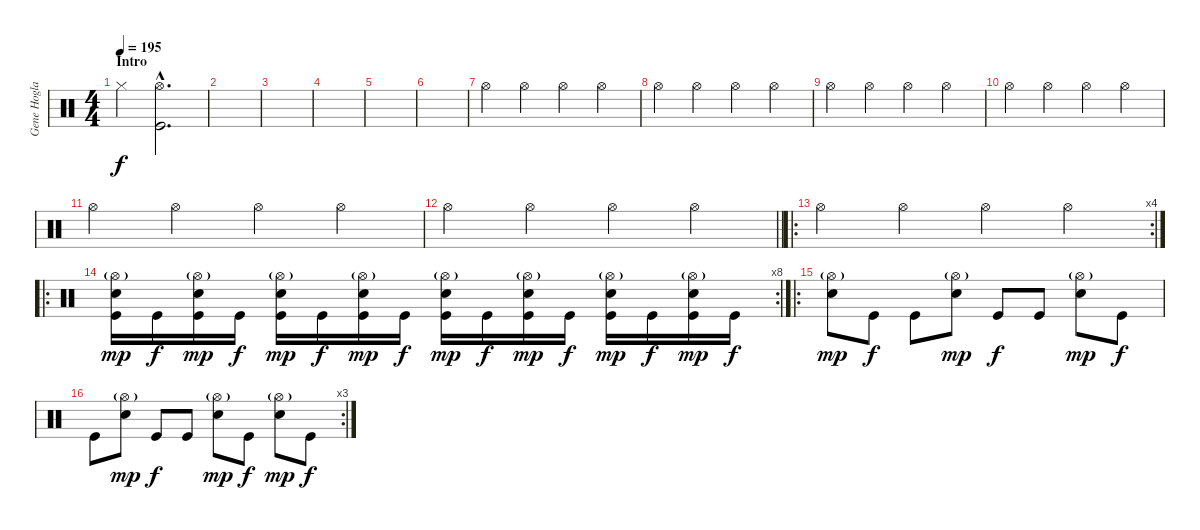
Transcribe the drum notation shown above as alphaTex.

\track ("Gene Hoglan" "Gene Hogla") {instrument percussion}
\staff {score}
\articulation defaults
\ts (4 4)
\section ("" "Intro")
\tempo 195
\clef neutral
\ks c "Hi-Hat (closed)".4{dy f}
("Hi-Hat (open)"{hac} "Kick (hit)"{hac}).2{d} |
|
|
|
|
|
"Hi-Hat (open)".4 "Hi-Hat (open)".4 "Hi-Hat (open)".4 "Hi-Hat (open)".4 |
"Hi-Hat (open)".4 "Hi-Hat (open)".4 "Hi-Hat (open)".4 "Hi-Hat (open)".4 |
"Hi-Hat (open)".4 "Hi-Hat (open)".4 "Hi-Hat (open)".4 "Hi-Hat (open)".4 |
"Hi-Hat (open)".4 "Hi-Hat (open)".4 "Hi-Hat (open)".4 "Hi-Hat (open)".4 |
"Hi-Hat (open)".4 "Hi-Hat (open)".4 "Hi-Hat (open)".4 "Hi-Hat (open)".4 |
\barLineRight lightlight "Hi-Hat (open)".4 "Hi-Hat (open)".4 "Hi-Hat (open)".4 "Hi-Hat (open)".4
|
\ro
\rc 4 "Hi-Hat (open)".4 "Hi-Hat (open)".4 "Hi-Hat (open)".4 "Hi-Hat (open)".4
|
\ro
\rc 8
("Hi-Hat (open)"{g} "Electric Snare (hit)" "Kick (hit)").16{dy mp} "Kick (hit)".16{dy f} ("Hi-Hat (open)"{g} "Electric Snare (hit)" "Kick (hit)").16{dy mp} "Kick (hit)".16{dy f} ("Hi-Hat (open)"{g} "Electric Snare (hit)" "Kick (hit)").16{dy mp} "Kick (hit)".16{dy f} ("Hi-Hat (open)"{g} "Electric Snare (hit)" "Kick (hit)").16{dy mp} "Kick (hit)".16{dy f} ("Hi-Hat (open)"{g} "Electric Snare (hit)" "Kick (hit)").16{dy mp} "Kick (hit)".16{dy f} ("Hi-Hat (open)"{g} "Electric Snare (hit)" "Kick (hit)").16{dy mp} "Kick (hit)".16{dy f} ("Hi-Hat (open)"{g} "Electric Snare (hit)" "Kick (hit)").16{dy mp} "Kick (hit)".16{dy f} ("Hi-Hat (open)"{g} "Electric Snare (hit)" "Kick (hit)").16{dy mp} "Kick (hit)".16{dy f} |
\ro
("Hi-Hat (open)"{g} "Electric Snare (hit)").8{dy mp} "Kick (hit)".8{dy f} "Kick (hit)".8 ("Hi-Hat (open)"{g} "Electric Snare (hit)").8{dy mp} "Kick (hit)".8{dy f} "Kick (hit)".8 ("Hi-Hat (open)"{g} "Electric Snare (hit)").8{dy mp} "Kick (hit)".8{dy f} |
\rc 3 "Kick (hit)".8
("Hi-Hat (open)"{g} "Electric Snare (hit)").8{dy mp} "Kick (hit)".8{dy f} "Kick (hit)".8 ("Hi-Hat (open)"{g} "Electric Snare (hit)").8{dy mp} "Kick (hit)".8{dy f} ("Hi-Hat (open)"{g} "Electric Snare (hit)").8{dy mp} "Kick (hit)".8{dy f}
